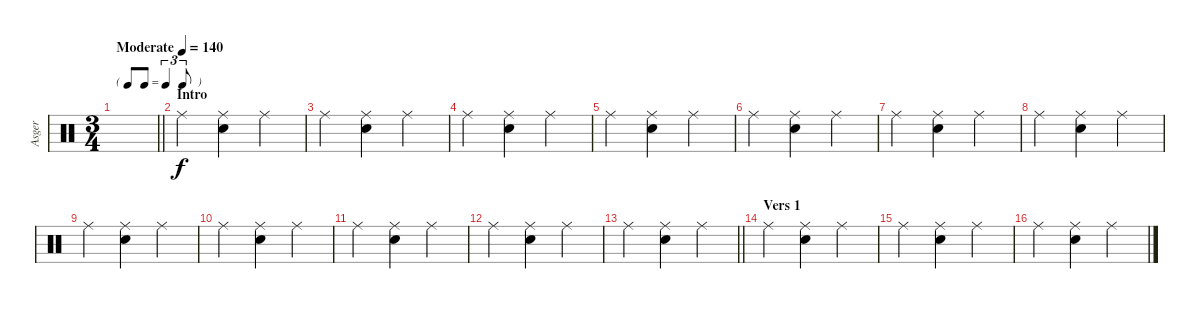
\track ("Asger " "Asger ") {instrument percussion}
\staff {score}
\articulation defaults
\ts (3 4)
\tf triplet8th
\tempo (140 "Moderate")
\clef neutral
\barLineRight lightlight
\ks c
|
\section ("" "Intro")
"Ride (middle)".4 ("Ride (middle)" "Snare (hit) 2").4 "Ride (middle)".4 |
"Ride (middle)".4 ("Ride (middle)" "Snare (hit) 2").4 "Ride (middle)".4 |
"Ride (middle)".4 ("Ride (middle)" "Snare (hit) 2").4 "Ride (middle)".4 |
"Ride (middle)".4 ("Ride (middle)" "Snare (hit) 2").4 "Ride (middle)".4 |
"Ride (middle)".4 ("Ride (middle)" "Snare (hit) 2").4 "Ride (middle)".4 |
"Ride (middle)".4 ("Ride (middle)" "Snare (hit) 2").4 "Ride (middle)".4 |
"Ride (middle)".4 ("Ride (middle)" "Snare (hit) 2").4 "Ride (middle)".4 |
"Ride (middle)".4 ("Ride (middle)" "Snare (hit) 2").4 "Ride (middle)".4 |
"Ride (middle)".4 ("Ride (middle)" "Snare (hit) 2").4 "Ride (middle)".4 |
"Ride (middle)".4 ("Ride (middle)" "Snare (hit) 2").4 "Ride (middle)".4 |
"Ride (middle)".4 ("Ride (middle)" "Snare (hit) 2").4 "Ride (middle)".4 |
\barLineRight lightlight "Ride (middle)".4
("Ride (middle)" "Snare (hit) 2").4 "Ride (middle)".4 |
\section ("" "Vers 1")
"Ride (middle)".4 ("Ride (middle)" "Snare (hit) 2").4 "Ride (middle)".4 |
"Ride (middle)".4 ("Ride (middle)" "Snare (hit) 2").4 "Ride (middle)".4 |
"Ride (middle)".4 ("Ride (middle)" "Snare (hit) 2").4 "Ride (middle)".4
